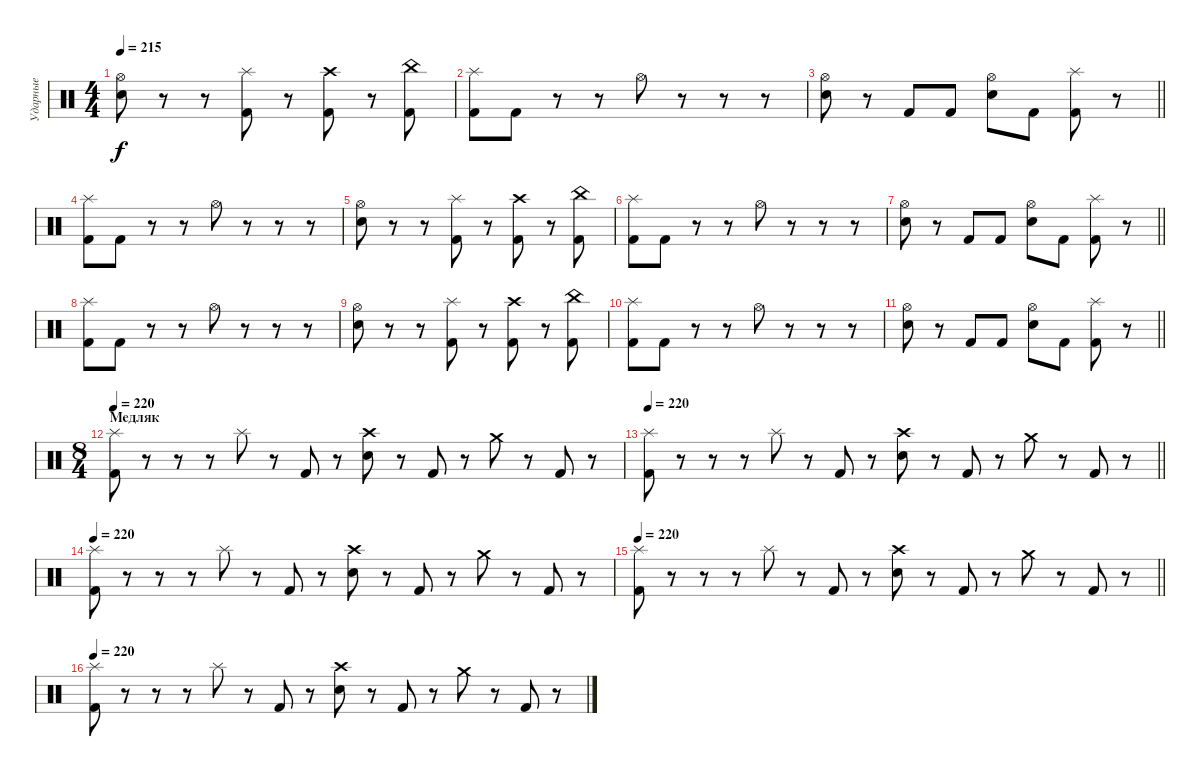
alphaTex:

\track ("Ударные" "Ударные") {instrument percussion}
\staff {score}
\articulation defaults
\ts (4 4)
\tempo 215
\clef neutral
\ks c
("Electric Snare (hit)" "Hi-Hat (open)").8{dy f} r.8 r.8 ("Kick (hit) 2" "Splash (hit)").8 r.8 ("Kick (hit) 2" "Crash high (hit)").8 r.8 ("Kick (hit) 2" "China (hit)").8 |
("Kick (hit) 2" "Splash (hit)").8 "Kick (hit) 2".8 r.8 r.8 "Hi-Hat (open)".8 r.8 r.8 r.8 |
\barLineRight lightlight
("Electric Snare (hit)" "Hi-Hat (open)").8 r.8 "Kick (hit) 2".8 "Kick (hit) 2".8 ("Electric Snare (hit)" "Hi-Hat (open)").8 "Kick (hit) 2".8 ("Kick (hit) 2" "Splash (hit)").8 r.8 |
("Kick (hit) 2" "Splash (hit)").8 "Kick (hit) 2".8 r.8 r.8 "Hi-Hat (open)".8 r.8 r.8 r.8 |
("Electric Snare (hit)" "Hi-Hat (open)").8 r.8 r.8 ("Kick (hit) 2" "Splash (hit)").8 r.8 ("Kick (hit) 2" "Crash high (hit)").8 r.8 ("Kick (hit) 2" "China (hit)").8 |
("Kick (hit) 2" "Splash (hit)").8 "Kick (hit) 2".8 r.8 r.8 "Hi-Hat (open)".8 r.8 r.8 r.8 |
\barLineRight lightlight
("Electric Snare (hit)" "Hi-Hat (open)").8 r.8 "Kick (hit) 2".8 "Kick (hit) 2".8 ("Electric Snare (hit)" "Hi-Hat (open)").8 "Kick (hit) 2".8 ("Kick (hit) 2" "Splash (hit)").8 r.8 |
("Kick (hit) 2" "Splash (hit)").8 "Kick (hit) 2".8 r.8 r.8 "Hi-Hat (open)".8 r.8 r.8 r.8 |
("Electric Snare (hit)" "Hi-Hat (open)").8 r.8 r.8 ("Kick (hit) 2" "Splash (hit)").8 r.8 ("Kick (hit) 2" "Crash high (hit)").8 r.8 ("Kick (hit) 2" "China (hit)").8 |
("Kick (hit) 2" "Splash (hit)").8 "Kick (hit) 2".8 r.8 r.8 "Hi-Hat (open)".8 r.8 r.8 r.8 |
\barLineRight lightlight
("Electric Snare (hit)" "Hi-Hat (open)").8 r.8 "Kick (hit) 2".8 "Kick (hit) 2".8 ("Electric Snare (hit)" "Hi-Hat (open)").8 "Kick (hit) 2".8 ("Kick (hit) 2" "Splash (hit)").8 r.8 |
\ts (8 4)
\section ("" "Медляк")
\tempo 220
("Kick (hit) 2" "Splash (hit)").8 r.8 r.8 r.8 "Splash (hit)".8 r.8 "Kick (hit) 2".8 r.8 ("Electric Snare (hit)" "Crash high (hit)").8 r.8 "Kick (hit) 2".8 r.8 "Crash medium (hit)".8 r.8 "Kick (hit) 2".8 r.8 |
\tempo 220
\barLineRight lightlight
("Kick (hit) 2" "Splash (hit)").8 r.8 r.8 r.8 "Splash (hit)".8 r.8 "Kick (hit) 2".8 r.8 ("Electric Snare (hit)" "Crash high (hit)").8 r.8 "Kick (hit) 2".8 r.8 "Crash medium (hit)".8 r.8 "Kick (hit) 2".8 r.8 |
\tempo 220
("Kick (hit) 2" "Splash (hit)").8 r.8 r.8 r.8 "Splash (hit)".8 r.8 "Kick (hit) 2".8 r.8 ("Electric Snare (hit)" "Crash high (hit)").8 r.8 "Kick (hit) 2".8 r.8 "Crash medium (hit)".8 r.8 "Kick (hit) 2".8 r.8 |
\tempo 220
\barLineRight lightlight
("Kick (hit) 2" "Splash (hit)").8 r.8 r.8 r.8 "Splash (hit)".8 r.8 "Kick (hit) 2".8 r.8 ("Electric Snare (hit)" "Crash high (hit)").8 r.8 "Kick (hit) 2".8 r.8 "Crash medium (hit)".8 r.8 "Kick (hit) 2".8 r.8 |
\tempo 220
("Kick (hit) 2" "Splash (hit)").8 r.8 r.8 r.8 "Splash (hit)".8 r.8 "Kick (hit) 2".8 r.8 ("Electric Snare (hit)" "Crash high (hit)").8 r.8 "Kick (hit) 2".8 r.8 "Crash medium (hit)".8 r.8 "Kick (hit) 2".8 r.8
